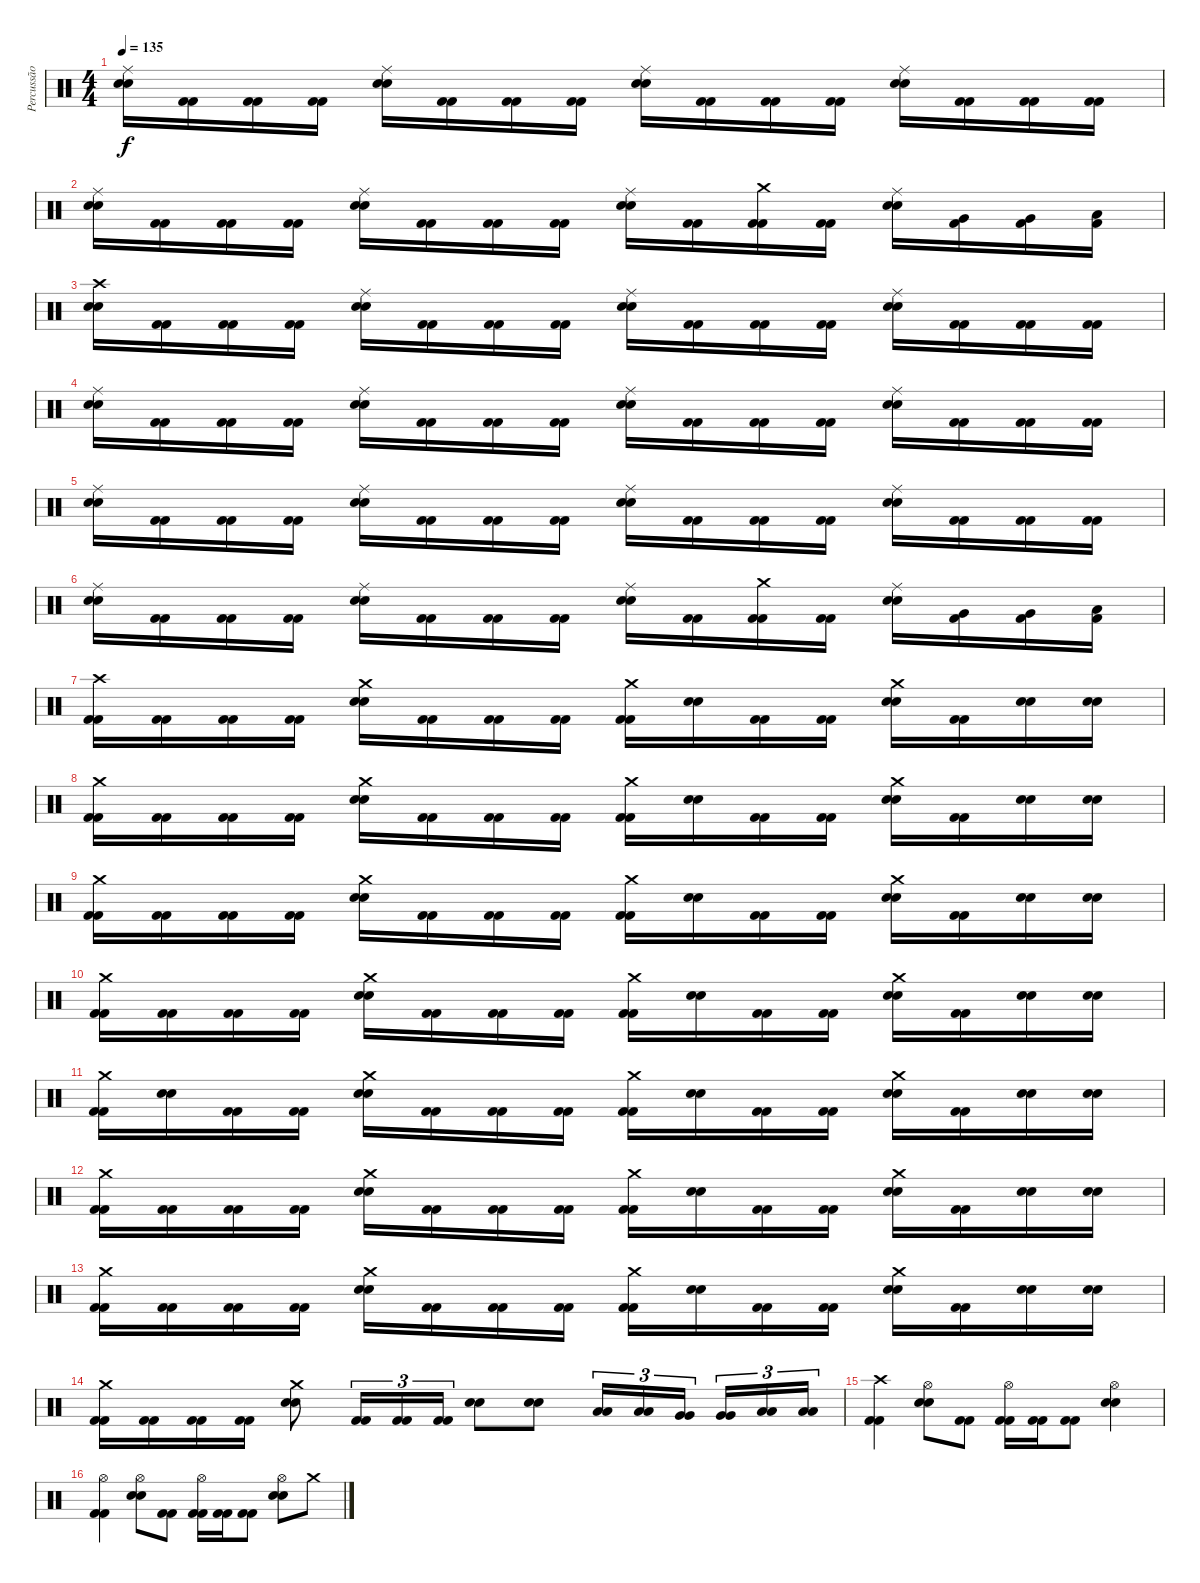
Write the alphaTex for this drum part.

\track ("Percussão" "Percussão") {instrument percussion}
\staff {score}
\articulation defaults
\ts (4 4)
\tempo 135
\clef neutral
\ks c
("Ride (middle)" "Electric Snare (hit)" "Electric Snare (hit)").16{dy f} ("Kick (hit) 2" "Kick (hit) 2").16 ("Kick (hit) 2" "Kick (hit) 2").16 ("Kick (hit) 2" "Kick (hit) 2").16 ("Ride (middle)" "Electric Snare (hit)" "Electric Snare (hit)").16 ("Kick (hit) 2" "Kick (hit) 2").16 ("Kick (hit) 2" "Kick (hit) 2").16 ("Kick (hit) 2" "Kick (hit) 2").16 ("Ride (middle)" "Electric Snare (hit)" "Electric Snare (hit)").16 ("Kick (hit) 2" "Kick (hit) 2").16 ("Kick (hit) 2" "Kick (hit) 2").16 ("Kick (hit) 2" "Kick (hit) 2").16 ("Ride (middle)" "Electric Snare (hit)" "Electric Snare (hit)").16 ("Kick (hit) 2" "Kick (hit) 2").16 ("Kick (hit) 2" "Kick (hit) 2").16 ("Kick (hit) 2" "Kick (hit) 2").16 |
("Ride (middle)" "Electric Snare (hit)" "Electric Snare (hit)").16 ("Kick (hit) 2" "Kick (hit) 2").16 ("Kick (hit) 2" "Kick (hit) 2").16 ("Kick (hit) 2" "Kick (hit) 2").16 ("Ride (middle)" "Electric Snare (hit)" "Electric Snare (hit)").16 ("Kick (hit) 2" "Kick (hit) 2").16 ("Kick (hit) 2" "Kick (hit) 2").16 ("Kick (hit) 2" "Kick (hit) 2").16 ("Ride (middle)" "Electric Snare (hit)" "Electric Snare (hit)").16 ("Kick (hit) 2" "Kick (hit) 2").16 ("Crash medium (hit)" "Kick (hit) 2" "Kick (hit) 2").16 ("Kick (hit) 2" "Kick (hit) 2").16 ("Ride (middle)" "Electric Snare (hit)" "Electric Snare (hit)").16 ("Very Low Tom (hit)" "Kick (hit) 2").16 ("Very Low Tom (hit)" "Kick (hit) 2").16 ("Low Floor Tom (hit)" "Kick (hit) 2").16 |
("Crash high (hit)" "Electric Snare (hit)" "Electric Snare (hit)").16 ("Kick (hit) 2" "Kick (hit) 2").16 ("Kick (hit) 2" "Kick (hit) 2").16 ("Kick (hit) 2" "Kick (hit) 2").16 ("Ride (middle)" "Electric Snare (hit)" "Electric Snare (hit)").16 ("Kick (hit) 2" "Kick (hit) 2").16 ("Kick (hit) 2" "Kick (hit) 2").16 ("Kick (hit) 2" "Kick (hit) 2").16 ("Ride (middle)" "Electric Snare (hit)" "Electric Snare (hit)").16 ("Kick (hit) 2" "Kick (hit) 2").16 ("Kick (hit) 2" "Kick (hit) 2").16 ("Kick (hit) 2" "Kick (hit) 2").16 ("Ride (middle)" "Electric Snare (hit)" "Electric Snare (hit)").16 ("Kick (hit) 2" "Kick (hit) 2").16 ("Kick (hit) 2" "Kick (hit) 2").16 ("Kick (hit) 2" "Kick (hit) 2").16 |
("Ride (middle)" "Electric Snare (hit)" "Electric Snare (hit)").16 ("Kick (hit) 2" "Kick (hit) 2").16 ("Kick (hit) 2" "Kick (hit) 2").16 ("Kick (hit) 2" "Kick (hit) 2").16 ("Ride (middle)" "Electric Snare (hit)" "Electric Snare (hit)").16 ("Kick (hit) 2" "Kick (hit) 2").16 ("Kick (hit) 2" "Kick (hit) 2").16 ("Kick (hit) 2" "Kick (hit) 2").16 ("Ride (middle)" "Electric Snare (hit)" "Electric Snare (hit)").16 ("Kick (hit) 2" "Kick (hit) 2").16 ("Kick (hit) 2" "Kick (hit) 2").16 ("Kick (hit) 2" "Kick (hit) 2").16 ("Ride (middle)" "Electric Snare (hit)" "Electric Snare (hit)").16 ("Kick (hit) 2" "Kick (hit) 2").16 ("Kick (hit) 2" "Kick (hit) 2").16 ("Kick (hit) 2" "Kick (hit) 2").16 |
("Ride (middle)" "Electric Snare (hit)" "Electric Snare (hit)").16 ("Kick (hit) 2" "Kick (hit) 2").16 ("Kick (hit) 2" "Kick (hit) 2").16 ("Kick (hit) 2" "Kick (hit) 2").16 ("Ride (middle)" "Electric Snare (hit)" "Electric Snare (hit)").16 ("Kick (hit) 2" "Kick (hit) 2").16 ("Kick (hit) 2" "Kick (hit) 2").16 ("Kick (hit) 2" "Kick (hit) 2").16 ("Ride (middle)" "Electric Snare (hit)" "Electric Snare (hit)").16 ("Kick (hit) 2" "Kick (hit) 2").16 ("Kick (hit) 2" "Kick (hit) 2").16 ("Kick (hit) 2" "Kick (hit) 2").16 ("Ride (middle)" "Electric Snare (hit)" "Electric Snare (hit)").16 ("Kick (hit) 2" "Kick (hit) 2").16 ("Kick (hit) 2" "Kick (hit) 2").16 ("Kick (hit) 2" "Kick (hit) 2").16 |
("Ride (middle)" "Electric Snare (hit)" "Electric Snare (hit)").16 ("Kick (hit) 2" "Kick (hit) 2").16 ("Kick (hit) 2" "Kick (hit) 2").16 ("Kick (hit) 2" "Kick (hit) 2").16 ("Ride (middle)" "Electric Snare (hit)" "Electric Snare (hit)").16 ("Kick (hit) 2" "Kick (hit) 2").16 ("Kick (hit) 2" "Kick (hit) 2").16 ("Kick (hit) 2" "Kick (hit) 2").16 ("Ride (middle)" "Electric Snare (hit)" "Electric Snare (hit)").16 ("Kick (hit) 2" "Kick (hit) 2").16 ("Crash medium (hit)" "Kick (hit) 2" "Kick (hit) 2").16 ("Kick (hit) 2" "Kick (hit) 2").16 ("Ride (middle)" "Electric Snare (hit)" "Electric Snare (hit)").16 ("Very Low Tom (hit)" "Kick (hit) 2").16 ("Very Low Tom (hit)" "Kick (hit) 2").16 ("Low Floor Tom (hit)" "Kick (hit) 2").16 |
("Crash high (hit)" "Kick (hit) 2" "Kick (hit) 2").16 ("Kick (hit) 2" "Kick (hit) 2").16 ("Kick (hit) 2" "Kick (hit) 2").16 ("Kick (hit) 2" "Kick (hit) 2").16 ("Crash medium (hit)" "Electric Snare (hit)" "Electric Snare (hit)").16 ("Kick (hit) 2" "Kick (hit) 2").16 ("Kick (hit) 2" "Kick (hit) 2").16 ("Kick (hit) 2" "Kick (hit) 2").16 ("Crash medium (hit)" "Kick (hit) 2" "Kick (hit) 2").16 ("Electric Snare (hit)" "Electric Snare (hit)").16 ("Kick (hit) 2" "Kick (hit) 2").16 ("Kick (hit) 2" "Kick (hit) 2").16 ("Crash medium (hit)" "Electric Snare (hit)" "Electric Snare (hit)").16 ("Kick (hit) 2" "Kick (hit) 2").16 ("Electric Snare (hit)" "Electric Snare (hit)").16 ("Electric Snare (hit)" "Electric Snare (hit)").16 |
("Crash medium (hit)" "Kick (hit) 2" "Kick (hit) 2").16 ("Kick (hit) 2" "Kick (hit) 2").16 ("Kick (hit) 2" "Kick (hit) 2").16 ("Kick (hit) 2" "Kick (hit) 2").16 ("Crash medium (hit)" "Electric Snare (hit)" "Electric Snare (hit)").16 ("Kick (hit) 2" "Kick (hit) 2").16 ("Kick (hit) 2" "Kick (hit) 2").16 ("Kick (hit) 2" "Kick (hit) 2").16 ("Crash medium (hit)" "Kick (hit) 2" "Kick (hit) 2").16 ("Electric Snare (hit)" "Electric Snare (hit)").16 ("Kick (hit) 2" "Kick (hit) 2").16 ("Kick (hit) 2" "Kick (hit) 2").16 ("Crash medium (hit)" "Electric Snare (hit)" "Electric Snare (hit)").16 ("Kick (hit) 2" "Kick (hit) 2").16 ("Electric Snare (hit)" "Electric Snare (hit)").16 ("Electric Snare (hit)" "Electric Snare (hit)").16 |
("Crash medium (hit)" "Kick (hit) 2" "Kick (hit) 2").16 ("Kick (hit) 2" "Kick (hit) 2").16 ("Kick (hit) 2" "Kick (hit) 2").16 ("Kick (hit) 2" "Kick (hit) 2").16 ("Crash medium (hit)" "Electric Snare (hit)" "Electric Snare (hit)").16 ("Kick (hit) 2" "Kick (hit) 2").16 ("Kick (hit) 2" "Kick (hit) 2").16 ("Kick (hit) 2" "Kick (hit) 2").16 ("Crash medium (hit)" "Kick (hit) 2" "Kick (hit) 2").16 ("Electric Snare (hit)" "Electric Snare (hit)").16 ("Kick (hit) 2" "Kick (hit) 2").16 ("Kick (hit) 2" "Kick (hit) 2").16 ("Crash medium (hit)" "Electric Snare (hit)" "Electric Snare (hit)").16 ("Kick (hit) 2" "Kick (hit) 2").16 ("Electric Snare (hit)" "Electric Snare (hit)").16 ("Electric Snare (hit)" "Electric Snare (hit)").16 |
("Crash medium (hit)" "Kick (hit) 2" "Kick (hit) 2").16 ("Kick (hit) 2" "Kick (hit) 2").16 ("Kick (hit) 2" "Kick (hit) 2").16 ("Kick (hit) 2" "Kick (hit) 2").16 ("Crash medium (hit)" "Electric Snare (hit)" "Electric Snare (hit)").16 ("Kick (hit) 2" "Kick (hit) 2").16 ("Kick (hit) 2" "Kick (hit) 2").16 ("Kick (hit) 2" "Kick (hit) 2").16 ("Crash medium (hit)" "Kick (hit) 2" "Kick (hit) 2").16 ("Electric Snare (hit)" "Electric Snare (hit)").16 ("Kick (hit) 2" "Kick (hit) 2").16 ("Kick (hit) 2" "Kick (hit) 2").16 ("Crash medium (hit)" "Electric Snare (hit)" "Electric Snare (hit)").16 ("Kick (hit) 2" "Kick (hit) 2").16 ("Electric Snare (hit)" "Electric Snare (hit)").16 ("Electric Snare (hit)" "Electric Snare (hit)").16 |
("Crash medium (hit)" "Kick (hit) 2" "Kick (hit) 2").16 ("Electric Snare (hit)" "Electric Snare (hit)").16 ("Kick (hit) 2" "Kick (hit) 2").16 ("Kick (hit) 2" "Kick (hit) 2").16 ("Crash medium (hit)" "Electric Snare (hit)" "Electric Snare (hit)").16 ("Kick (hit) 2" "Kick (hit) 2").16 ("Kick (hit) 2" "Kick (hit) 2").16 ("Kick (hit) 2" "Kick (hit) 2").16 ("Crash medium (hit)" "Kick (hit) 2" "Kick (hit) 2").16 ("Electric Snare (hit)" "Electric Snare (hit)").16 ("Kick (hit) 2" "Kick (hit) 2").16 ("Kick (hit) 2" "Kick (hit) 2").16 ("Crash medium (hit)" "Electric Snare (hit)" "Electric Snare (hit)").16 ("Kick (hit) 2" "Kick (hit) 2").16 ("Electric Snare (hit)" "Electric Snare (hit)").16 ("Electric Snare (hit)" "Electric Snare (hit)").16 |
("Crash medium (hit)" "Kick (hit) 2" "Kick (hit) 2").16 ("Kick (hit) 2" "Kick (hit) 2").16 ("Kick (hit) 2" "Kick (hit) 2").16 ("Kick (hit) 2" "Kick (hit) 2").16 ("Crash medium (hit)" "Electric Snare (hit)" "Electric Snare (hit)").16 ("Kick (hit) 2" "Kick (hit) 2").16 ("Kick (hit) 2" "Kick (hit) 2").16 ("Kick (hit) 2" "Kick (hit) 2").16 ("Crash medium (hit)" "Kick (hit) 2" "Kick (hit) 2").16 ("Electric Snare (hit)" "Electric Snare (hit)").16 ("Kick (hit) 2" "Kick (hit) 2").16 ("Kick (hit) 2" "Kick (hit) 2").16 ("Crash medium (hit)" "Electric Snare (hit)" "Electric Snare (hit)").16 ("Kick (hit) 2" "Kick (hit) 2").16 ("Electric Snare (hit)" "Electric Snare (hit)").16 ("Electric Snare (hit)" "Electric Snare (hit)").16 |
("Crash medium (hit)" "Kick (hit) 2" "Kick (hit) 2").16 ("Kick (hit) 2" "Kick (hit) 2").16 ("Kick (hit) 2" "Kick (hit) 2").16 ("Kick (hit) 2" "Kick (hit) 2").16 ("Crash medium (hit)" "Electric Snare (hit)" "Electric Snare (hit)").16 ("Kick (hit) 2" "Kick (hit) 2").16 ("Kick (hit) 2" "Kick (hit) 2").16 ("Kick (hit) 2" "Kick (hit) 2").16 ("Crash medium (hit)" "Kick (hit) 2" "Kick (hit) 2").16 ("Electric Snare (hit)" "Electric Snare (hit)").16 ("Kick (hit) 2" "Kick (hit) 2").16 ("Kick (hit) 2" "Kick (hit) 2").16 ("Crash medium (hit)" "Electric Snare (hit)" "Electric Snare (hit)").16 ("Kick (hit) 2" "Kick (hit) 2").16 ("Electric Snare (hit)" "Electric Snare (hit)").16 ("Electric Snare (hit)" "Electric Snare (hit)").16 |
("Crash medium (hit)" "Kick (hit) 2" "Kick (hit) 2").16 ("Kick (hit) 2" "Kick (hit) 2").16 ("Kick (hit) 2" "Kick (hit) 2").16 ("Kick (hit) 2" "Kick (hit) 2").16 ("Crash medium (hit)" "Electric Snare (hit)" "Electric Snare (hit)").8 ("Kick (hit) 2" "Kick (hit) 2").16{tu (3 2)} ("Kick (hit) 2" "Kick (hit) 2").16{tu (3 2)} ("Kick (hit) 2" "Kick (hit) 2").16{tu (3 2)} ("Electric Snare (hit)" "Electric Snare (hit)").8 ("Electric Snare (hit)" "Electric Snare (hit)").8 ("Low Tom (hit)" "Low Tom (hit)").16{tu (3 2)} ("Low Tom (hit)" "Low Tom (hit)").16{tu (3 2)} ("Very Low Tom (hit)" "Very Low Tom (hit)").16{tu (3 2)} ("Very Low Tom (hit)" "Very Low Tom (hit)").16{tu (3 2)} ("Low Floor Tom (hit)" "Low Floor Tom (hit)").16{tu (3 2)} ("Low Floor Tom (hit)" "Low Floor Tom (hit)").16{tu (3 2)} |
("Crash high (hit)" "Kick (hit) 2" "Kick (hit) 2").4 ("Hi-Hat (open)" "Electric Snare (hit)" "Electric Snare (hit)").8 ("Kick (hit) 2" "Kick (hit) 2").8 ("Hi-Hat (open)" "Kick (hit) 2" "Kick (hit) 2").16 ("Kick (hit) 2" "Kick (hit) 2").16 ("Kick (hit) 2" "Kick (hit) 2").8 ("Hi-Hat (open)" "Electric Snare (hit)" "Electric Snare (hit)").4 |
("Hi-Hat (open)" "Kick (hit) 2" "Kick (hit) 2").4 ("Hi-Hat (open)" "Electric Snare (hit)" "Electric Snare (hit)").8 ("Kick (hit) 2" "Kick (hit) 2").8 ("Hi-Hat (open)" "Kick (hit) 2" "Kick (hit) 2").16 ("Kick (hit) 2" "Kick (hit) 2").16 ("Kick (hit) 2" "Kick (hit) 2").8 ("Hi-Hat (open)" "Electric Snare (hit)" "Electric Snare (hit)").8 "Crash medium (hit)".8
